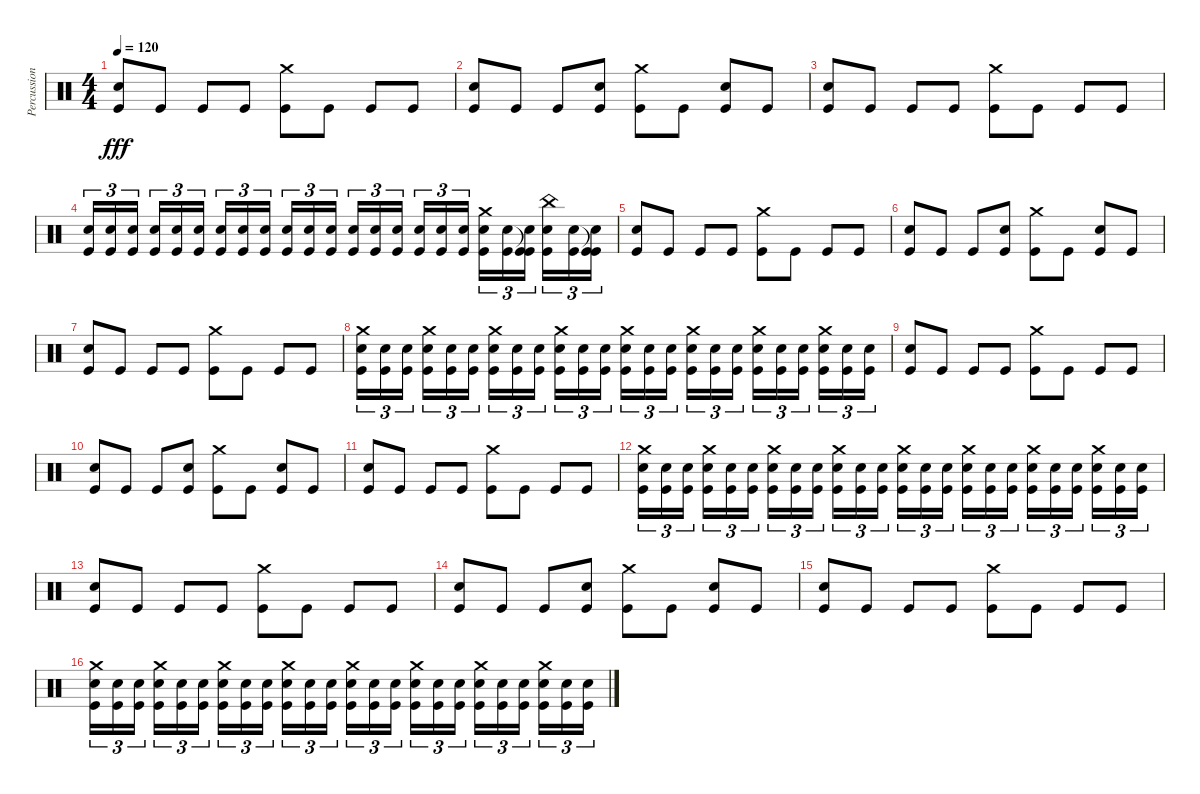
\track ("Percussions" "Percussion") {instrument percussion}
\staff {score}
\articulation defaults
\ts (4 4)
\tempo 120
\clef neutral
\ks c
("Snare (hit) 2" "Kick (hit)").8{dy fff} "Kick (hit)".8 "Kick (hit)".8 "Kick (hit)".8 ("Crash medium (hit)" "Kick (hit)").8 "Kick (hit)".8 "Kick (hit)".8 "Kick (hit)".8 |
("Snare (hit) 2" "Kick (hit)").8 "Kick (hit)".8 "Kick (hit)".8 ("Snare (hit) 2" "Kick (hit)").8 ("Crash medium (hit)" "Kick (hit)").8 "Kick (hit)".8 ("Snare (hit) 2" "Kick (hit)").8 "Kick (hit)".8 |
("Snare (hit) 2" "Kick (hit)").8 "Kick (hit)".8 "Kick (hit)".8 "Kick (hit)".8 ("Crash medium (hit)" "Kick (hit)").8 "Kick (hit)".8 "Kick (hit)".8 "Kick (hit)".8 |
("Snare (hit) 2" "Kick (hit)").16{tu (3 2)} ("Snare (hit) 2" "Kick (hit)").16{tu (3 2)} ("Snare (hit) 2" "Kick (hit)").16{tu (3 2)} ("Snare (hit) 2" "Kick (hit)").16{tu (3 2)} ("Snare (hit) 2" "Kick (hit)").16{tu (3 2)} ("Snare (hit) 2" "Kick (hit)").16{tu (3 2)} ("Snare (hit) 2" "Kick (hit)").16{tu (3 2)} ("Snare (hit) 2" "Kick (hit)").16{tu (3 2)} ("Snare (hit) 2" "Kick (hit)").16{tu (3 2)} ("Snare (hit) 2" "Kick (hit)").16{tu (3 2)} ("Snare (hit) 2" "Kick (hit)").16{tu (3 2)} ("Snare (hit) 2" "Kick (hit)").16{tu (3 2)} ("Snare (hit) 2" "Kick (hit)").16{tu (3 2)} ("Snare (hit) 2" "Kick (hit)").16{tu (3 2)} ("Snare (hit) 2" "Kick (hit)").16{tu (3 2)} ("Snare (hit) 2" "Kick (hit)").16{tu (3 2)} ("Snare (hit) 2" "Kick (hit)").16{tu (3 2)} ("Snare (hit) 2" "Kick (hit)").16{tu (3 2)} ("Crash medium (hit)" "Snare (hit) 2" "Kick (hit)").16{tu (3 2)} ("Snare (hit) 2" "Kick (hit)").16{tu (3 2)} ("Kick (hit)"{t} "Snare (hit) 2" "Kick (hit)").16{tu (3 2)} ("China (hit)" "Snare (hit) 2" "Kick (hit)").16{tu (3 2)} ("Snare (hit) 2" "Kick (hit)").16{tu (3 2)} ("Kick (hit)"{t} "Snare (hit) 2" "Kick (hit)").16{tu (3 2)} |
("Snare (hit) 2" "Kick (hit)").8 "Kick (hit)".8 "Kick (hit)".8 "Kick (hit)".8 ("Crash medium (hit)" "Kick (hit)").8 "Kick (hit)".8 "Kick (hit)".8 "Kick (hit)".8 |
("Snare (hit) 2" "Kick (hit)").8 "Kick (hit)".8 "Kick (hit)".8 ("Snare (hit) 2" "Kick (hit)").8 ("Crash medium (hit)" "Kick (hit)").8 "Kick (hit)".8 ("Snare (hit) 2" "Kick (hit)").8 "Kick (hit)".8 |
("Snare (hit) 2" "Kick (hit)").8 "Kick (hit)".8 "Kick (hit)".8 "Kick (hit)".8 ("Crash medium (hit)" "Kick (hit)").8 "Kick (hit)".8 "Kick (hit)".8 "Kick (hit)".8 |
("Crash medium (hit)" "Snare (hit) 2" "Kick (hit)").16{tu (3 2)} ("Snare (hit) 2" "Kick (hit)").16{tu (3 2)} ("Snare (hit) 2" "Kick (hit)").16{tu (3 2)} ("Crash medium (hit)" "Snare (hit) 2" "Kick (hit)").16{tu (3 2)} ("Snare (hit) 2" "Kick (hit)").16{tu (3 2)} ("Snare (hit) 2" "Kick (hit)").16{tu (3 2)} ("Crash medium (hit)" "Snare (hit) 2" "Kick (hit)").16{tu (3 2)} ("Snare (hit) 2" "Kick (hit)").16{tu (3 2)} ("Snare (hit) 2" "Kick (hit)").16{tu (3 2)} ("Crash medium (hit)" "Snare (hit) 2" "Kick (hit)").16{tu (3 2)} ("Snare (hit) 2" "Kick (hit)").16{tu (3 2)} ("Snare (hit) 2" "Kick (hit)").16{tu (3 2)} ("Crash medium (hit)" "Snare (hit) 2" "Kick (hit)").16{tu (3 2)} ("Snare (hit) 2" "Kick (hit)").16{tu (3 2)} ("Snare (hit) 2" "Kick (hit)").16{tu (3 2)} ("Crash medium (hit)" "Snare (hit) 2" "Kick (hit)").16{tu (3 2)} ("Snare (hit) 2" "Kick (hit)").16{tu (3 2)} ("Snare (hit) 2" "Kick (hit)").16{tu (3 2)} ("Crash medium (hit)" "Snare (hit) 2" "Kick (hit)").16{tu (3 2)} ("Snare (hit) 2" "Kick (hit)").16{tu (3 2)} ("Snare (hit) 2" "Kick (hit)").16{tu (3 2)} ("Crash medium (hit)" "Snare (hit) 2" "Kick (hit)").16{tu (3 2)} ("Snare (hit) 2" "Kick (hit)").16{tu (3 2)} ("Snare (hit) 2" "Kick (hit)").16{tu (3 2)} |
("Snare (hit) 2" "Kick (hit)").8 "Kick (hit)".8 "Kick (hit)".8 "Kick (hit)".8 ("Crash medium (hit)" "Kick (hit)").8 "Kick (hit)".8 "Kick (hit)".8 "Kick (hit)".8 |
("Snare (hit) 2" "Kick (hit)").8 "Kick (hit)".8 "Kick (hit)".8 ("Snare (hit) 2" "Kick (hit)").8 ("Crash medium (hit)" "Kick (hit)").8 "Kick (hit)".8 ("Snare (hit) 2" "Kick (hit)").8 "Kick (hit)".8 |
("Snare (hit) 2" "Kick (hit)").8 "Kick (hit)".8 "Kick (hit)".8 "Kick (hit)".8 ("Crash medium (hit)" "Kick (hit)").8 "Kick (hit)".8 "Kick (hit)".8 "Kick (hit)".8 |
("Crash medium (hit)" "Snare (hit) 2" "Kick (hit)").16{tu (3 2)} ("Snare (hit) 2" "Kick (hit)").16{tu (3 2)} ("Snare (hit) 2" "Kick (hit)").16{tu (3 2)} ("Crash medium (hit)" "Snare (hit) 2" "Kick (hit)").16{tu (3 2)} ("Snare (hit) 2" "Kick (hit)").16{tu (3 2)} ("Snare (hit) 2" "Kick (hit)").16{tu (3 2)} ("Crash medium (hit)" "Snare (hit) 2" "Kick (hit)").16{tu (3 2)} ("Snare (hit) 2" "Kick (hit)").16{tu (3 2)} ("Snare (hit) 2" "Kick (hit)").16{tu (3 2)} ("Crash medium (hit)" "Snare (hit) 2" "Kick (hit)").16{tu (3 2)} ("Snare (hit) 2" "Kick (hit)").16{tu (3 2)} ("Snare (hit) 2" "Kick (hit)").16{tu (3 2)} ("Crash medium (hit)" "Snare (hit) 2" "Kick (hit)").16{tu (3 2)} ("Snare (hit) 2" "Kick (hit)").16{tu (3 2)} ("Snare (hit) 2" "Kick (hit)").16{tu (3 2)} ("Crash medium (hit)" "Snare (hit) 2" "Kick (hit)").16{tu (3 2)} ("Snare (hit) 2" "Kick (hit)").16{tu (3 2)} ("Snare (hit) 2" "Kick (hit)").16{tu (3 2)} ("Crash medium (hit)" "Snare (hit) 2" "Kick (hit)").16{tu (3 2)} ("Snare (hit) 2" "Kick (hit)").16{tu (3 2)} ("Snare (hit) 2" "Kick (hit)").16{tu (3 2)} ("Crash medium (hit)" "Snare (hit) 2" "Kick (hit)").16{tu (3 2)} ("Snare (hit) 2" "Kick (hit)").16{tu (3 2)} ("Snare (hit) 2" "Kick (hit)").16{tu (3 2)} |
("Snare (hit) 2" "Kick (hit)").8 "Kick (hit)".8 "Kick (hit)".8 "Kick (hit)".8 ("Crash medium (hit)" "Kick (hit)").8 "Kick (hit)".8 "Kick (hit)".8 "Kick (hit)".8 |
("Snare (hit) 2" "Kick (hit)").8 "Kick (hit)".8 "Kick (hit)".8 ("Snare (hit) 2" "Kick (hit)").8 ("Crash medium (hit)" "Kick (hit)").8 "Kick (hit)".8 ("Snare (hit) 2" "Kick (hit)").8 "Kick (hit)".8 |
("Snare (hit) 2" "Kick (hit)").8 "Kick (hit)".8 "Kick (hit)".8 "Kick (hit)".8 ("Crash medium (hit)" "Kick (hit)").8 "Kick (hit)".8 "Kick (hit)".8 "Kick (hit)".8 |
("Crash medium (hit)" "Snare (hit) 2" "Kick (hit)").16{tu (3 2)} ("Snare (hit) 2" "Kick (hit)").16{tu (3 2)} ("Snare (hit) 2" "Kick (hit)").16{tu (3 2)} ("Crash medium (hit)" "Snare (hit) 2" "Kick (hit)").16{tu (3 2)} ("Snare (hit) 2" "Kick (hit)").16{tu (3 2)} ("Snare (hit) 2" "Kick (hit)").16{tu (3 2)} ("Crash medium (hit)" "Snare (hit) 2" "Kick (hit)").16{tu (3 2)} ("Snare (hit) 2" "Kick (hit)").16{tu (3 2)} ("Snare (hit) 2" "Kick (hit)").16{tu (3 2)} ("Crash medium (hit)" "Snare (hit) 2" "Kick (hit)").16{tu (3 2)} ("Snare (hit) 2" "Kick (hit)").16{tu (3 2)} ("Snare (hit) 2" "Kick (hit)").16{tu (3 2)} ("Crash medium (hit)" "Snare (hit) 2" "Kick (hit)").16{tu (3 2)} ("Snare (hit) 2" "Kick (hit)").16{tu (3 2)} ("Snare (hit) 2" "Kick (hit)").16{tu (3 2)} ("Crash medium (hit)" "Snare (hit) 2" "Kick (hit)").16{tu (3 2)} ("Snare (hit) 2" "Kick (hit)").16{tu (3 2)} ("Snare (hit) 2" "Kick (hit)").16{tu (3 2)} ("Crash medium (hit)" "Snare (hit) 2" "Kick (hit)").16{tu (3 2)} ("Snare (hit) 2" "Kick (hit)").16{tu (3 2)} ("Snare (hit) 2" "Kick (hit)").16{tu (3 2)} ("Crash medium (hit)" "Snare (hit) 2" "Kick (hit)").16{tu (3 2)} ("Snare (hit) 2" "Kick (hit)").16{tu (3 2)} ("Snare (hit) 2" "Kick (hit)").16{tu (3 2)}
